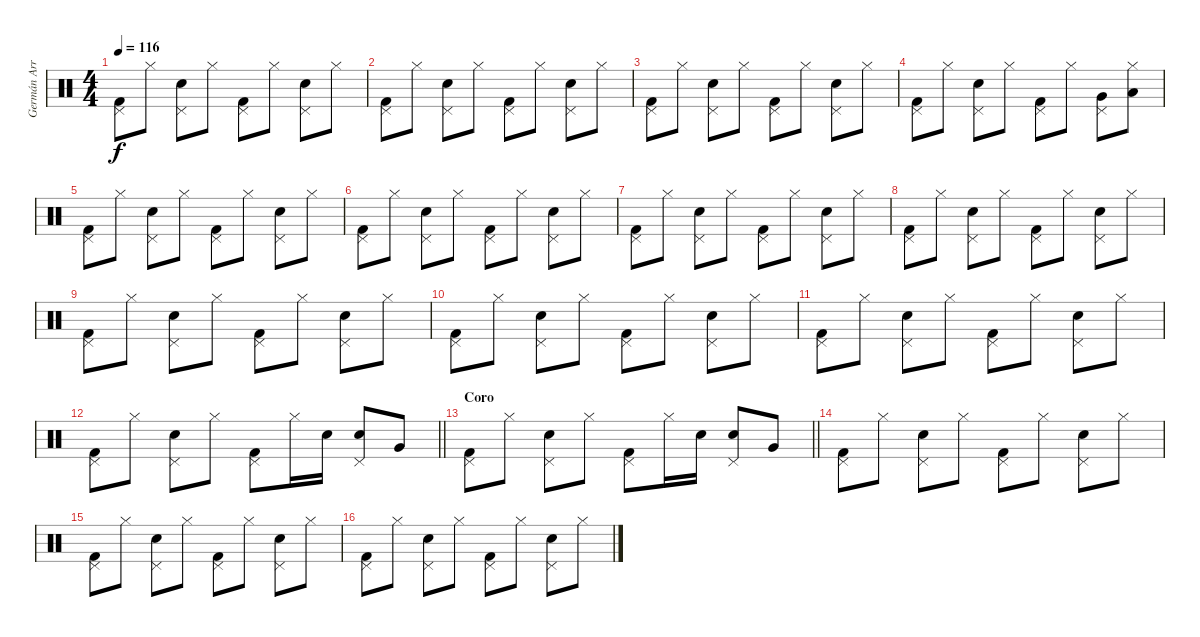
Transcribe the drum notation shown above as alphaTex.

\track ("Germán Arroyo (Batería)" "Germán Arr") {instrument percussion}
\staff {score}
\articulation defaults
\ts (4 4)
\tempo 116
\clef neutral
\ks c
("Pedal Hi-Hat (hit)" "Kick (hit) 2").8{dy f} "Hi-Hat (closed)".8 ("Pedal Hi-Hat (hit)" "Snare (hit) 2").8 "Hi-Hat (closed)".8 ("Pedal Hi-Hat (hit)" "Kick (hit) 2").8 "Hi-Hat (closed)".8 ("Pedal Hi-Hat (hit)" "Snare (hit) 2").8 "Hi-Hat (closed)".8 |
("Pedal Hi-Hat (hit)" "Kick (hit) 2").8 "Hi-Hat (closed)".8 ("Pedal Hi-Hat (hit)" "Snare (hit) 2").8 "Hi-Hat (closed)".8 ("Pedal Hi-Hat (hit)" "Kick (hit) 2").8 "Hi-Hat (closed)".8 ("Pedal Hi-Hat (hit)" "Snare (hit) 2").8 "Hi-Hat (closed)".8 |
("Pedal Hi-Hat (hit)" "Kick (hit) 2").8 "Hi-Hat (closed)".8 ("Pedal Hi-Hat (hit)" "Snare (hit) 2").8 "Hi-Hat (closed)".8 ("Pedal Hi-Hat (hit)" "Kick (hit) 2").8 "Hi-Hat (closed)".8 ("Pedal Hi-Hat (hit)" "Snare (hit) 2").8 "Hi-Hat (closed)".8 |
("Pedal Hi-Hat (hit)" "Kick (hit) 2").8 "Hi-Hat (closed)".8 ("Pedal Hi-Hat (hit)" "Snare (hit) 2").8 "Hi-Hat (closed)".8 ("Pedal Hi-Hat (hit)" "Kick (hit) 2").8 "Hi-Hat (closed)".8 ("Pedal Hi-Hat (hit)" "Very Low Tom (hit)").8 ("Hi-Hat (closed)" "Low Floor Tom (hit)").8 |
("Pedal Hi-Hat (hit)" "Kick (hit) 2").8 "Hi-Hat (closed)".8 ("Pedal Hi-Hat (hit)" "Snare (hit) 2").8 "Hi-Hat (closed)".8 ("Pedal Hi-Hat (hit)" "Kick (hit) 2").8 "Hi-Hat (closed)".8 ("Pedal Hi-Hat (hit)" "Snare (hit) 2").8 "Hi-Hat (closed)".8 |
("Pedal Hi-Hat (hit)" "Kick (hit) 2").8 "Hi-Hat (closed)".8 ("Pedal Hi-Hat (hit)" "Snare (hit) 2").8 "Hi-Hat (closed)".8 ("Pedal Hi-Hat (hit)" "Kick (hit) 2").8 "Hi-Hat (closed)".8 ("Pedal Hi-Hat (hit)" "Snare (hit) 2").8 "Hi-Hat (closed)".8 |
("Pedal Hi-Hat (hit)" "Kick (hit) 2").8 "Hi-Hat (closed)".8 ("Pedal Hi-Hat (hit)" "Snare (hit) 2").8 "Hi-Hat (closed)".8 ("Pedal Hi-Hat (hit)" "Kick (hit) 2").8 "Hi-Hat (closed)".8 ("Pedal Hi-Hat (hit)" "Snare (hit) 2").8 "Hi-Hat (closed)".8 |
("Pedal Hi-Hat (hit)" "Kick (hit) 2").8 "Hi-Hat (closed)".8 ("Pedal Hi-Hat (hit)" "Snare (hit) 2").8 "Hi-Hat (closed)".8 ("Pedal Hi-Hat (hit)" "Kick (hit) 2").8 "Hi-Hat (closed)".8 ("Pedal Hi-Hat (hit)" "Snare (hit) 2").8 "Hi-Hat (closed)".8 |
("Pedal Hi-Hat (hit)" "Kick (hit) 2").8 "Hi-Hat (closed)".8 ("Pedal Hi-Hat (hit)" "Snare (hit) 2").8 "Hi-Hat (closed)".8 ("Pedal Hi-Hat (hit)" "Kick (hit) 2").8 "Hi-Hat (closed)".8 ("Pedal Hi-Hat (hit)" "Snare (hit) 2").8 "Hi-Hat (closed)".8 |
("Pedal Hi-Hat (hit)" "Kick (hit) 2").8 "Hi-Hat (closed)".8 ("Pedal Hi-Hat (hit)" "Snare (hit) 2").8 "Hi-Hat (closed)".8 ("Pedal Hi-Hat (hit)" "Kick (hit) 2").8 "Hi-Hat (closed)".8 ("Pedal Hi-Hat (hit)" "Snare (hit) 2").8 "Hi-Hat (closed)".8 |
("Pedal Hi-Hat (hit)" "Kick (hit) 2").8 "Hi-Hat (closed)".8 ("Pedal Hi-Hat (hit)" "Snare (hit) 2").8 "Hi-Hat (closed)".8 ("Pedal Hi-Hat (hit)" "Kick (hit) 2").8 "Hi-Hat (closed)".8 ("Pedal Hi-Hat (hit)" "Snare (hit) 2").8 "Hi-Hat (closed)".8 |
\barLineRight lightlight
("Pedal Hi-Hat (hit)" "Kick (hit) 2").8 "Hi-Hat (closed)".8 ("Pedal Hi-Hat (hit)" "Snare (hit) 2").8 "Hi-Hat (closed)".8 ("Pedal Hi-Hat (hit)" "Kick (hit) 2").8 "Hi-Hat (closed)".16 "Snare (hit) 2".16 ("Pedal Hi-Hat (hit)" "Snare (hit) 2").8 "Very Low Tom (hit)".8 |
\section ("" "Coro")
\barLineRight lightlight
("Pedal Hi-Hat (hit)" "Kick (hit) 2").8 "Hi-Hat (closed)".8 ("Pedal Hi-Hat (hit)" "Snare (hit) 2").8 "Hi-Hat (closed)".8 ("Pedal Hi-Hat (hit)" "Kick (hit) 2").8 "Hi-Hat (closed)".16 "Snare (hit) 2".16 ("Pedal Hi-Hat (hit)" "Snare (hit) 2").8 "Very Low Tom (hit)".8 |
("Pedal Hi-Hat (hit)" "Kick (hit) 2").8 "Hi-Hat (closed)".8 ("Pedal Hi-Hat (hit)" "Snare (hit) 2").8 "Hi-Hat (closed)".8 ("Pedal Hi-Hat (hit)" "Kick (hit) 2").8 "Hi-Hat (closed)".8 ("Pedal Hi-Hat (hit)" "Snare (hit) 2").8 "Hi-Hat (closed)".8 |
("Pedal Hi-Hat (hit)" "Kick (hit) 2").8 "Hi-Hat (closed)".8 ("Pedal Hi-Hat (hit)" "Snare (hit) 2").8 "Hi-Hat (closed)".8 ("Pedal Hi-Hat (hit)" "Kick (hit) 2").8 "Hi-Hat (closed)".8 ("Pedal Hi-Hat (hit)" "Snare (hit) 2").8 "Hi-Hat (closed)".8 |
("Pedal Hi-Hat (hit)" "Kick (hit) 2").8 "Hi-Hat (closed)".8 ("Pedal Hi-Hat (hit)" "Snare (hit) 2").8 "Hi-Hat (closed)".8 ("Pedal Hi-Hat (hit)" "Kick (hit) 2").8 "Hi-Hat (closed)".8 ("Pedal Hi-Hat (hit)" "Snare (hit) 2").8 "Hi-Hat (closed)".8
